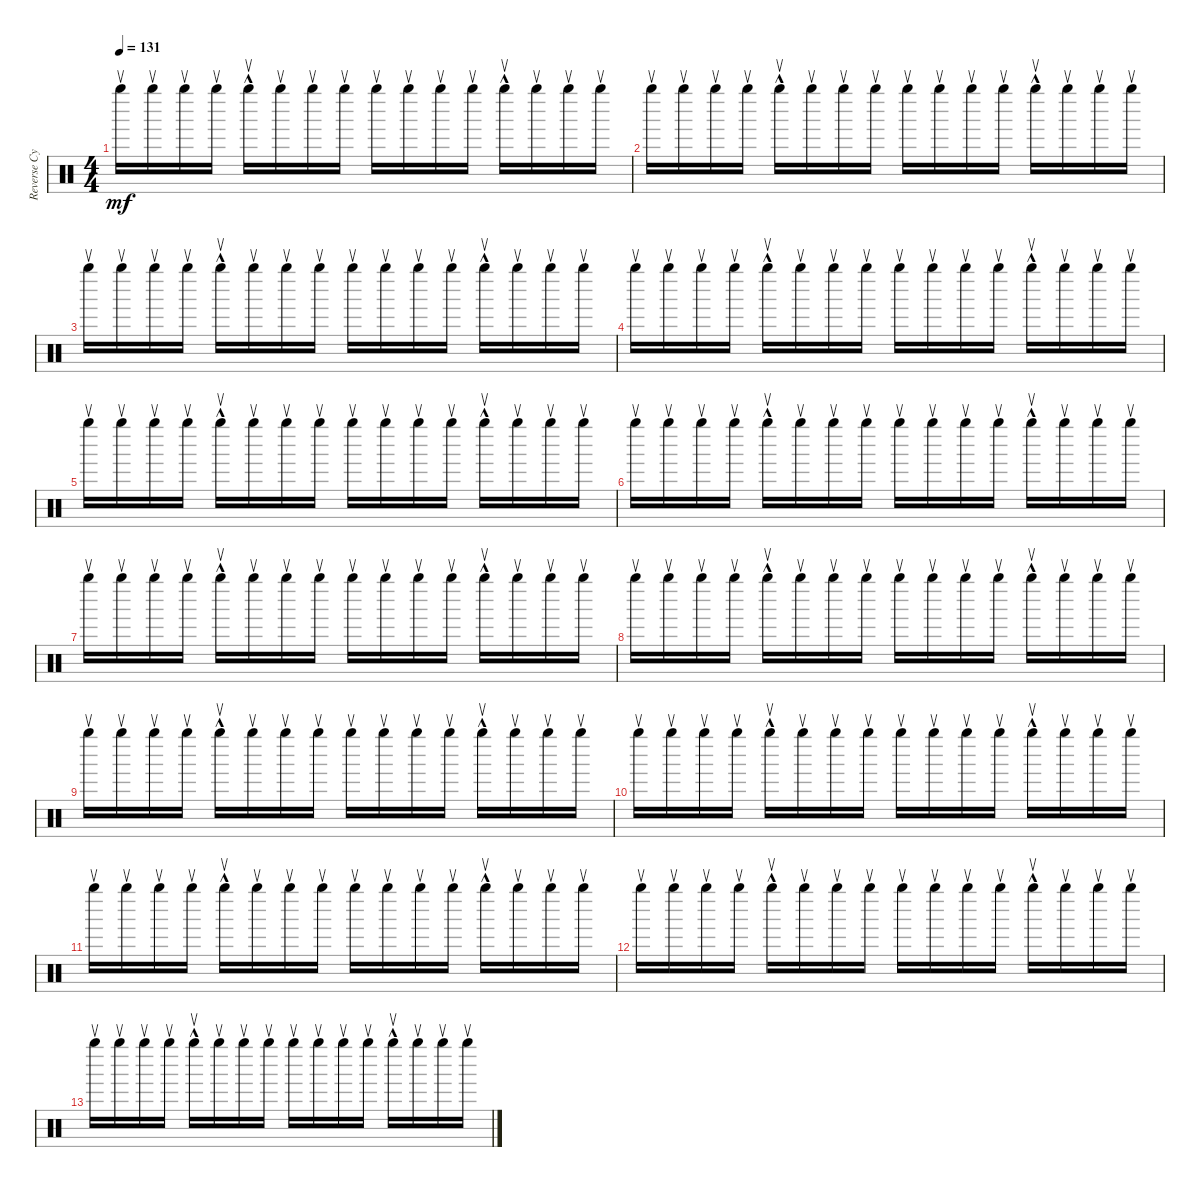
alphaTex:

\track ("Reverse Cymbal" "Reverse Cy") {instrument percussion}
\staff {score}
\articulation defaults
\ts (4 4)
\tempo 131
\clef neutral
\ks c "Right Maraca (return)".16{dy mf} "Right Maraca (return)".16 "Right Maraca (return)".16 "Right Maraca (return)".16 "Right Maraca (return)"{hac}.16 "Right Maraca (return)".16 "Right Maraca (return)".16 "Right Maraca (return)".16 "Right Maraca (return)".16 "Right Maraca (return)".16 "Right Maraca (return)".16 "Right Maraca (return)".16 "Right Maraca (return)"{hac}.16 "Right Maraca (return)".16 "Right Maraca (return)".16 "Right Maraca (return)".16
|
"Right Maraca (return)".16 "Right Maraca (return)".16 "Right Maraca (return)".16 "Right Maraca (return)".16 "Right Maraca (return)"{hac}.16 "Right Maraca (return)".16 "Right Maraca (return)".16 "Right Maraca (return)".16 "Right Maraca (return)".16 "Right Maraca (return)".16 "Right Maraca (return)".16 "Right Maraca (return)".16 "Right Maraca (return)"{hac}.16 "Right Maraca (return)".16 "Right Maraca (return)".16 "Right Maraca (return)".16 |
"Right Maraca (return)".16 "Right Maraca (return)".16 "Right Maraca (return)".16 "Right Maraca (return)".16 "Right Maraca (return)"{hac}.16 "Right Maraca (return)".16 "Right Maraca (return)".16 "Right Maraca (return)".16 "Right Maraca (return)".16 "Right Maraca (return)".16 "Right Maraca (return)".16 "Right Maraca (return)".16 "Right Maraca (return)"{hac}.16 "Right Maraca (return)".16 "Right Maraca (return)".16 "Right Maraca (return)".16 |
"Right Maraca (return)".16 "Right Maraca (return)".16 "Right Maraca (return)".16 "Right Maraca (return)".16 "Right Maraca (return)"{hac}.16 "Right Maraca (return)".16 "Right Maraca (return)".16 "Right Maraca (return)".16 "Right Maraca (return)".16 "Right Maraca (return)".16 "Right Maraca (return)".16 "Right Maraca (return)".16 "Right Maraca (return)"{hac}.16 "Right Maraca (return)".16 "Right Maraca (return)".16 "Right Maraca (return)".16 |
"Right Maraca (return)".16 "Right Maraca (return)".16 "Right Maraca (return)".16 "Right Maraca (return)".16 "Right Maraca (return)"{hac}.16 "Right Maraca (return)".16 "Right Maraca (return)".16 "Right Maraca (return)".16 "Right Maraca (return)".16 "Right Maraca (return)".16 "Right Maraca (return)".16 "Right Maraca (return)".16 "Right Maraca (return)"{hac}.16 "Right Maraca (return)".16 "Right Maraca (return)".16 "Right Maraca (return)".16 |
"Right Maraca (return)".16 "Right Maraca (return)".16 "Right Maraca (return)".16 "Right Maraca (return)".16 "Right Maraca (return)"{hac}.16 "Right Maraca (return)".16 "Right Maraca (return)".16 "Right Maraca (return)".16 "Right Maraca (return)".16 "Right Maraca (return)".16 "Right Maraca (return)".16 "Right Maraca (return)".16 "Right Maraca (return)"{hac}.16 "Right Maraca (return)".16 "Right Maraca (return)".16 "Right Maraca (return)".16 |
"Right Maraca (return)".16 "Right Maraca (return)".16 "Right Maraca (return)".16 "Right Maraca (return)".16 "Right Maraca (return)"{hac}.16 "Right Maraca (return)".16 "Right Maraca (return)".16 "Right Maraca (return)".16 "Right Maraca (return)".16 "Right Maraca (return)".16 "Right Maraca (return)".16 "Right Maraca (return)".16 "Right Maraca (return)"{hac}.16 "Right Maraca (return)".16 "Right Maraca (return)".16 "Right Maraca (return)".16 |
"Right Maraca (return)".16 "Right Maraca (return)".16 "Right Maraca (return)".16 "Right Maraca (return)".16 "Right Maraca (return)"{hac}.16 "Right Maraca (return)".16 "Right Maraca (return)".16 "Right Maraca (return)".16 "Right Maraca (return)".16 "Right Maraca (return)".16 "Right Maraca (return)".16 "Right Maraca (return)".16 "Right Maraca (return)"{hac}.16 "Right Maraca (return)".16 "Right Maraca (return)".16 "Right Maraca (return)".16 |
"Right Maraca (return)".16 "Right Maraca (return)".16 "Right Maraca (return)".16 "Right Maraca (return)".16 "Right Maraca (return)"{hac}.16 "Right Maraca (return)".16 "Right Maraca (return)".16 "Right Maraca (return)".16 "Right Maraca (return)".16 "Right Maraca (return)".16 "Right Maraca (return)".16 "Right Maraca (return)".16 "Right Maraca (return)"{hac}.16 "Right Maraca (return)".16 "Right Maraca (return)".16 "Right Maraca (return)".16 |
"Right Maraca (return)".16 "Right Maraca (return)".16 "Right Maraca (return)".16 "Right Maraca (return)".16 "Right Maraca (return)"{hac}.16 "Right Maraca (return)".16 "Right Maraca (return)".16 "Right Maraca (return)".16 "Right Maraca (return)".16 "Right Maraca (return)".16 "Right Maraca (return)".16 "Right Maraca (return)".16 "Right Maraca (return)"{hac}.16 "Right Maraca (return)".16 "Right Maraca (return)".16 "Right Maraca (return)".16 |
"Right Maraca (return)".16 "Right Maraca (return)".16 "Right Maraca (return)".16 "Right Maraca (return)".16 "Right Maraca (return)"{hac}.16 "Right Maraca (return)".16 "Right Maraca (return)".16 "Right Maraca (return)".16 "Right Maraca (return)".16 "Right Maraca (return)".16 "Right Maraca (return)".16 "Right Maraca (return)".16 "Right Maraca (return)"{hac}.16 "Right Maraca (return)".16 "Right Maraca (return)".16 "Right Maraca (return)".16 |
"Right Maraca (return)".16 "Right Maraca (return)".16 "Right Maraca (return)".16 "Right Maraca (return)".16 "Right Maraca (return)"{hac}.16 "Right Maraca (return)".16 "Right Maraca (return)".16 "Right Maraca (return)".16 "Right Maraca (return)".16 "Right Maraca (return)".16 "Right Maraca (return)".16 "Right Maraca (return)".16 "Right Maraca (return)"{hac}.16 "Right Maraca (return)".16 "Right Maraca (return)".16 "Right Maraca (return)".16 |
"Right Maraca (return)".16 "Right Maraca (return)".16 "Right Maraca (return)".16 "Right Maraca (return)".16 "Right Maraca (return)"{hac}.16 "Right Maraca (return)".16 "Right Maraca (return)".16 "Right Maraca (return)".16 "Right Maraca (return)".16 "Right Maraca (return)".16 "Right Maraca (return)".16 "Right Maraca (return)".16 "Right Maraca (return)"{hac}.16 "Right Maraca (return)".16 "Right Maraca (return)".16 "Right Maraca (return)".16
